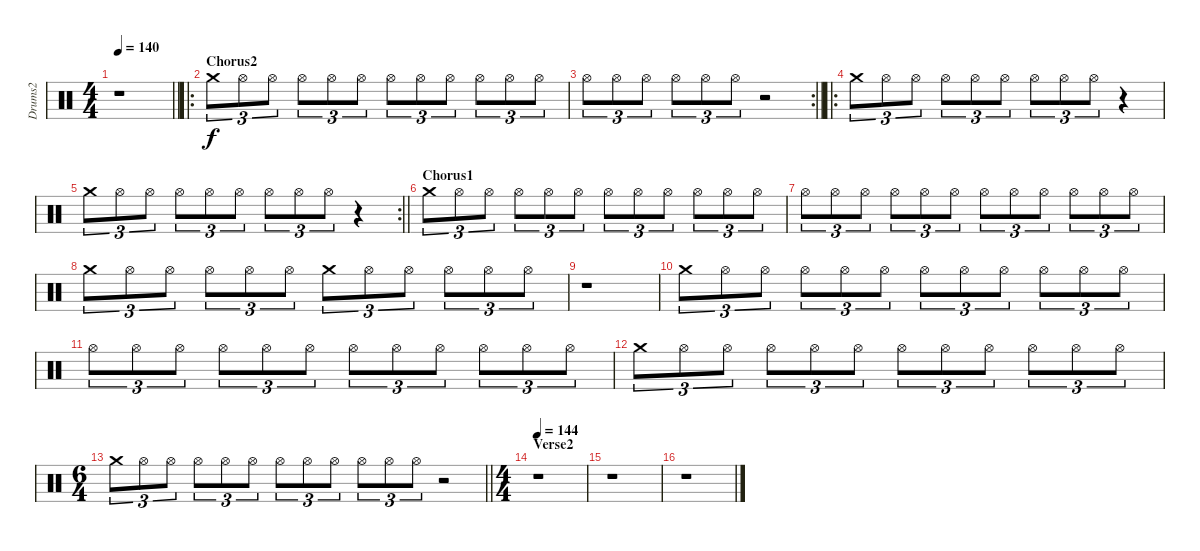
\track ("Drums2" "Drums2") {instrument percussion}
\staff {score}
\articulation defaults
\ts (4 4)
\tempo 140
\clef neutral
\barLineRight lightlight
\ks c
r.1{dy f} |
\ro
\section ("" "Chorus2")
"Crash medium (hit)".8{tu (3 2)} "Hi-Hat (open)".8{tu (3 2)} "Hi-Hat (open)".8{tu (3 2)} "Hi-Hat (open)".8{tu (3 2)} "Hi-Hat (open)".8{tu (3 2)} "Hi-Hat (open)".8{tu (3 2)} "Hi-Hat (open)".8{tu (3 2)} "Hi-Hat (open)".8{tu (3 2)} "Hi-Hat (open)".8{tu (3 2)} "Hi-Hat (open)".8{tu (3 2)} "Hi-Hat (open)".8{tu (3 2)} "Hi-Hat (open)".8{tu (3 2)} |
\rc 2
\barLineRight lightlight "Hi-Hat (open)".8{tu (3 2)} "Hi-Hat (open)".8{tu (3 2)} "Hi-Hat (open)".8{tu (3 2)} "Hi-Hat (open)".8{tu (3 2)} "Hi-Hat (open)".8{tu (3 2)} "Hi-Hat (open)".8{tu (3 2)}
r.2 |
\ro "Crash medium (hit)".8{tu (3 2)} "Hi-Hat (open)".8{tu (3 2)} "Hi-Hat (open)".8{tu (3 2)} "Hi-Hat (open)".8{tu (3 2)} "Hi-Hat (open)".8{tu (3 2)} "Hi-Hat (open)".8{tu (3 2)} "Hi-Hat (open)".8{tu (3 2)} "Hi-Hat (open)".8{tu (3 2)} "Hi-Hat (open)".8{tu (3 2)}
r.4 |
\rc 2
\barLineRight lightlight "Crash medium (hit)".8{tu (3 2)} "Hi-Hat (open)".8{tu (3 2)} "Hi-Hat (open)".8{tu (3 2)} "Hi-Hat (open)".8{tu (3 2)} "Hi-Hat (open)".8{tu (3 2)} "Hi-Hat (open)".8{tu (3 2)} "Hi-Hat (open)".8{tu (3 2)} "Hi-Hat (open)".8{tu (3 2)} "Hi-Hat (open)".8{tu (3 2)}
r.4 |
\section ("" "Chorus1")
"Crash medium (hit)".8{tu (3 2)} "Hi-Hat (open)".8{tu (3 2)} "Hi-Hat (open)".8{tu (3 2)} "Hi-Hat (open)".8{tu (3 2)} "Hi-Hat (open)".8{tu (3 2)} "Hi-Hat (open)".8{tu (3 2)} "Hi-Hat (open)".8{tu (3 2)} "Hi-Hat (open)".8{tu (3 2)} "Hi-Hat (open)".8{tu (3 2)} "Hi-Hat (open)".8{tu (3 2)} "Hi-Hat (open)".8{tu (3 2)} "Hi-Hat (open)".8{tu (3 2)} |
"Hi-Hat (open)".8{tu (3 2)} "Hi-Hat (open)".8{tu (3 2)} "Hi-Hat (open)".8{tu (3 2)} "Hi-Hat (open)".8{tu (3 2)} "Hi-Hat (open)".8{tu (3 2)} "Hi-Hat (open)".8{tu (3 2)} "Hi-Hat (open)".8{tu (3 2)} "Hi-Hat (open)".8{tu (3 2)} "Hi-Hat (open)".8{tu (3 2)} "Hi-Hat (open)".8{tu (3 2)} "Hi-Hat (open)".8{tu (3 2)} "Hi-Hat (open)".8{tu (3 2)} |
"Crash medium (hit)".8{tu (3 2)} "Hi-Hat (open)".8{tu (3 2)} "Hi-Hat (open)".8{tu (3 2)} "Hi-Hat (open)".8{tu (3 2)} "Hi-Hat (open)".8{tu (3 2)} "Hi-Hat (open)".8{tu (3 2)} "Crash medium (hit)".8{tu (3 2)} "Hi-Hat (open)".8{tu (3 2)} "Hi-Hat (open)".8{tu (3 2)} "Hi-Hat (open)".8{tu (3 2)} "Hi-Hat (open)".8{tu (3 2)} "Hi-Hat (open)".8{tu (3 2)} |
r.1 |
"Crash medium (hit)".8{tu (3 2)} "Hi-Hat (open)".8{tu (3 2)} "Hi-Hat (open)".8{tu (3 2)} "Hi-Hat (open)".8{tu (3 2)} "Hi-Hat (open)".8{tu (3 2)} "Hi-Hat (open)".8{tu (3 2)} "Hi-Hat (open)".8{tu (3 2)} "Hi-Hat (open)".8{tu (3 2)} "Hi-Hat (open)".8{tu (3 2)} "Hi-Hat (open)".8{tu (3 2)} "Hi-Hat (open)".8{tu (3 2)} "Hi-Hat (open)".8{tu (3 2)} |
"Hi-Hat (open)".8{tu (3 2)} "Hi-Hat (open)".8{tu (3 2)} "Hi-Hat (open)".8{tu (3 2)} "Hi-Hat (open)".8{tu (3 2)} "Hi-Hat (open)".8{tu (3 2)} "Hi-Hat (open)".8{tu (3 2)} "Hi-Hat (open)".8{tu (3 2)} "Hi-Hat (open)".8{tu (3 2)} "Hi-Hat (open)".8{tu (3 2)} "Hi-Hat (open)".8{tu (3 2)} "Hi-Hat (open)".8{tu (3 2)} "Hi-Hat (open)".8{tu (3 2)} |
"Crash medium (hit)".8{tu (3 2)} "Hi-Hat (open)".8{tu (3 2)} "Hi-Hat (open)".8{tu (3 2)} "Hi-Hat (open)".8{tu (3 2)} "Hi-Hat (open)".8{tu (3 2)} "Hi-Hat (open)".8{tu (3 2)} "Hi-Hat (open)".8{tu (3 2)} "Hi-Hat (open)".8{tu (3 2)} "Hi-Hat (open)".8{tu (3 2)} "Hi-Hat (open)".8{tu (3 2)} "Hi-Hat (open)".8{tu (3 2)} "Hi-Hat (open)".8{tu (3 2)} |
\ts (6 4)
\barLineRight lightlight "Crash medium (hit)".8{tu (3 2)} "Hi-Hat (open)".8{tu (3 2)} "Hi-Hat (open)".8{tu (3 2)} "Hi-Hat (open)".8{tu (3 2)} "Hi-Hat (open)".8{tu (3 2)} "Hi-Hat (open)".8{tu (3 2)} "Hi-Hat (open)".8{tu (3 2)} "Hi-Hat (open)".8{tu (3 2)} "Hi-Hat (open)".8{tu (3 2)} "Hi-Hat (open)".8{tu (3 2)} "Hi-Hat (open)".8{tu (3 2)} "Hi-Hat (open)".8{tu (3 2)}
r.2 |
\ts (4 4)
\section ("" "Verse2")
\tempo 144
r.1 |
r.1 |
r.1
